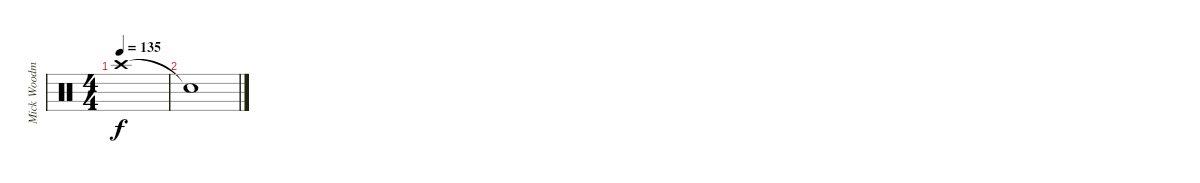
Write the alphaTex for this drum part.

\track ("Mick Woodmansey - Drums" "Mick Woodm") {instrument percussion}
\staff {score}
\articulation defaults
\ts (4 4)
\tempo 135
\clef neutral
\ks c "Crash high (hit)"{t}.1{dy f}
|
"Snare (hit)"{t}.1
